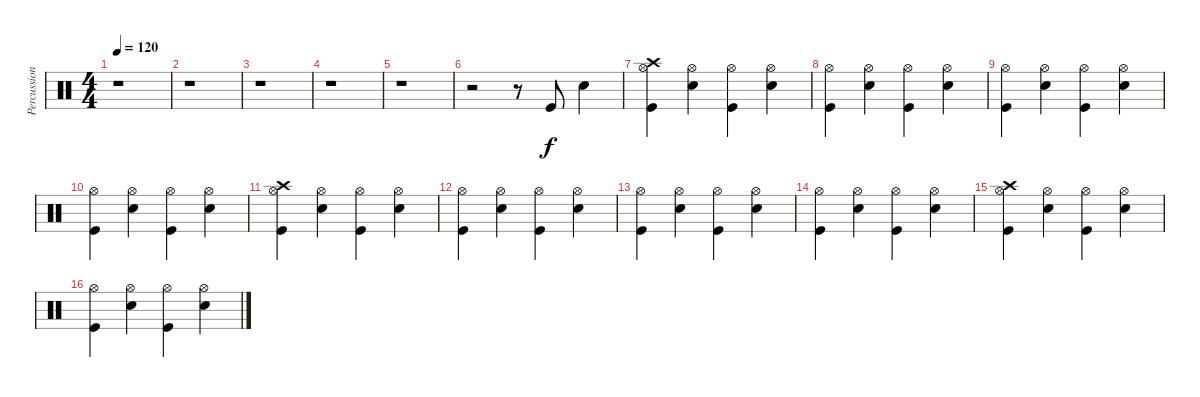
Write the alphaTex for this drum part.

\track ("Percussion" "Percussion") {instrument percussion}
\staff {score}
\articulation defaults
\ts (4 4)
\tempo 120
\clef neutral
\ks c
r.1{dy f} |
r.1 |
r.1 |
r.1 |
r.1 |
r.2 r.8 "Kick (hit)".8 "Snare (hit) 2".4 |
("Hi-Hat (open)" "Kick (hit)" "Crash high (hit)").4 ("Hi-Hat (open)" "Snare (hit) 2").4 ("Hi-Hat (open)" "Kick (hit)").4 ("Hi-Hat (open)" "Snare (hit) 2").4 |
("Hi-Hat (open)" "Kick (hit)").4 ("Hi-Hat (open)" "Snare (hit) 2").4 ("Hi-Hat (open)" "Kick (hit)").4 ("Hi-Hat (open)" "Snare (hit) 2").4 |
("Hi-Hat (open)" "Kick (hit)").4 ("Hi-Hat (open)" "Snare (hit) 2").4 ("Hi-Hat (open)" "Kick (hit)").4 ("Hi-Hat (open)" "Snare (hit) 2").4 |
("Hi-Hat (open)" "Kick (hit)").4 ("Hi-Hat (open)" "Snare (hit) 2").4 ("Hi-Hat (open)" "Kick (hit)").4 ("Hi-Hat (open)" "Snare (hit) 2").4 |
("Hi-Hat (open)" "Kick (hit)" "Crash high (hit)").4 ("Hi-Hat (open)" "Snare (hit) 2").4 ("Hi-Hat (open)" "Kick (hit)").4 ("Hi-Hat (open)" "Snare (hit) 2").4 |
("Hi-Hat (open)" "Kick (hit)").4 ("Hi-Hat (open)" "Snare (hit) 2").4 ("Hi-Hat (open)" "Kick (hit)").4 ("Hi-Hat (open)" "Snare (hit) 2").4 |
("Hi-Hat (open)" "Kick (hit)").4 ("Hi-Hat (open)" "Snare (hit) 2").4 ("Hi-Hat (open)" "Kick (hit)").4 ("Hi-Hat (open)" "Snare (hit) 2").4 |
("Hi-Hat (open)" "Kick (hit)").4 ("Hi-Hat (open)" "Snare (hit) 2").4 ("Hi-Hat (open)" "Kick (hit)").4 ("Hi-Hat (open)" "Snare (hit) 2").4 |
("Hi-Hat (open)" "Kick (hit)" "Crash high (hit)").4 ("Hi-Hat (open)" "Snare (hit) 2").4 ("Hi-Hat (open)" "Kick (hit)").4 ("Hi-Hat (open)" "Snare (hit) 2").4 |
("Hi-Hat (open)" "Kick (hit)").4 ("Hi-Hat (open)" "Snare (hit) 2").4 ("Hi-Hat (open)" "Kick (hit)").4 ("Hi-Hat (open)" "Snare (hit) 2").4
